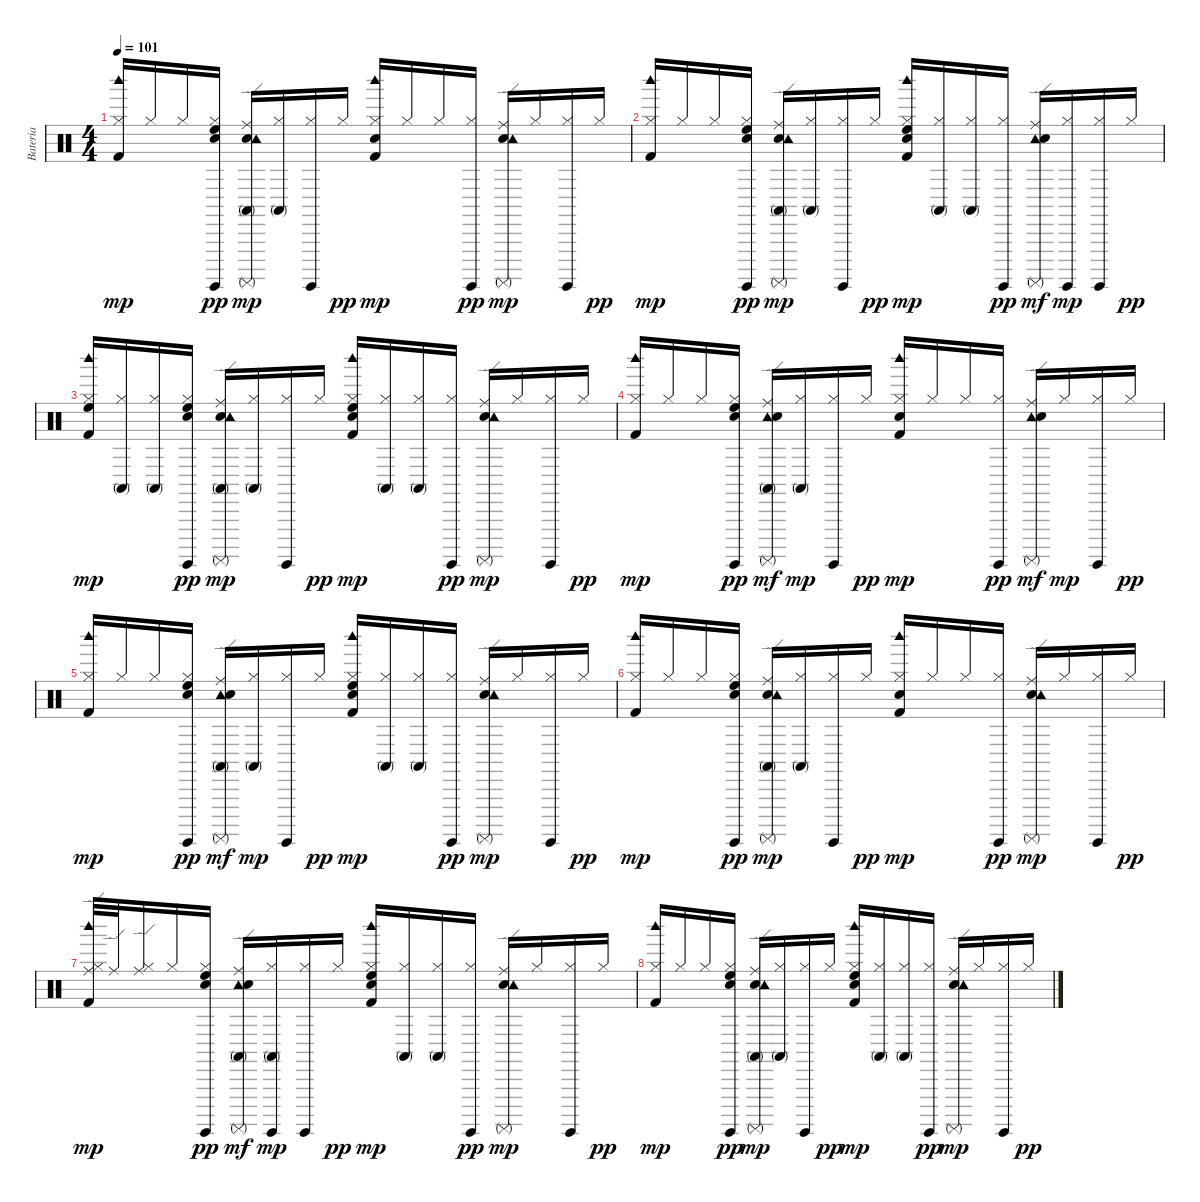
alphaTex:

\track ("Bateria" "Bateria") {instrument percussion}
\staff {score}
\articulation defaults
\ts (4 4)
\tempo 101
\clef neutral
\ks c
("Kick (hit) 2" "Hi-Hat (closed)" "Woodblock high (hit)").16{dy mp} "Hi-Hat (closed)".16 "Hi-Hat (closed)".16 ("High Floor Tom (hit)" "Snare (hit)" "Surdo (hit)" "Hi-Hat (closed)").16{dy pp} ("Conga high (mute)" "Ride (edge)" "Electric Snare (hit)" "Surdo (mute)" "Tambourine (hit)").16{dy mp} ("Conga high (mute)" "Hi-Hat (closed)").16 ("Surdo (hit)" "Hi-Hat (closed)").16 "Hi-Hat (closed)".16{dy pp} ("Snare (hit)" "Kick (hit) 2" "Hi-Hat (closed)" "Woodblock high (hit)").16{dy mp} "Hi-Hat (closed)".16 "Hi-Hat (closed)".16 ("Surdo (hit)" "Hi-Hat (closed)").16{dy pp} ("Ride (edge)" "Electric Snare (hit)" "Surdo (mute)" "Tambourine (hit)").16{dy mp} "Hi-Hat (closed)".16 ("Surdo (hit)" "Hi-Hat (closed)").16 "Hi-Hat (closed)".16{dy pp} |
("Kick (hit) 2" "Hi-Hat (closed)" "Woodblock high (hit)").16{dy mp} "Hi-Hat (closed)".16 "Hi-Hat (closed)".16 ("High Floor Tom (hit)" "Snare (hit)" "Surdo (hit)" "Hi-Hat (closed)").16{dy pp} ("Conga high (mute)" "Ride (edge)" "Electric Snare (hit)" "Surdo (mute)" "Tambourine (hit)").16{dy mp} ("Conga high (mute)" "Hi-Hat (closed)").16 ("Surdo (hit)" "Hi-Hat (closed)").16 "Hi-Hat (closed)".16{dy pp} ("High Floor Tom (hit)" "Snare (hit)" "Kick (hit) 2" "Hi-Hat (closed)" "Woodblock high (hit)").16{dy mp} ("Conga high (mute)" "Hi-Hat (closed)").16 ("Conga high (mute)" "Hi-Hat (closed)").16 ("Surdo (hit)" "Hi-Hat (closed)").16{dy pp} ("Ride (edge)" "Tambourine (hit)" "Electric Snare (hit)" "Surdo (mute)").16{dy mf} ("Surdo (hit)" "Hi-Hat (closed)").16{dy mp} ("Surdo (hit)" "Hi-Hat (closed)").16 "Hi-Hat (closed)".16{dy pp} |
("High Floor Tom (hit)" "Woodblock high (hit)" "Kick (hit) 2" "Hi-Hat (closed)").16{dy mp} ("Conga high (mute)" "Hi-Hat (closed)").16 ("Conga high (mute)" "Hi-Hat (closed)").16 ("High Floor Tom (hit)" "Snare (hit)" "Surdo (hit)" "Hi-Hat (closed)").16{dy pp} ("Conga high (mute)" "Ride (edge)" "Electric Snare (hit)" "Surdo (mute)" "Tambourine (hit)").16{dy mp} ("Conga high (mute)" "Hi-Hat (closed)").16 ("Surdo (hit)" "Hi-Hat (closed)").16 "Hi-Hat (closed)".16{dy pp} ("High Floor Tom (hit)" "Snare (hit)" "Woodblock high (hit)" "Kick (hit) 2" "Hi-Hat (closed)").16{dy mp} ("Conga high (mute)" "Hi-Hat (closed)").16 ("Conga high (mute)" "Hi-Hat (closed)").16 ("Surdo (hit)" "Hi-Hat (closed)").16{dy pp} ("Ride (edge)" "Electric Snare (hit)" "Surdo (mute)" "Tambourine (hit)").16{dy mp} "Hi-Hat (closed)".16 ("Surdo (hit)" "Hi-Hat (closed)").16 "Hi-Hat (closed)".16{dy pp} |
("Woodblock high (hit)" "Kick (hit) 2" "Hi-Hat (closed)").16{dy mp} "Hi-Hat (closed)".16 "Hi-Hat (closed)".16 ("High Floor Tom (hit)" "Snare (hit)" "Surdo (hit)" "Hi-Hat (closed)").16{dy pp} ("Conga high (mute)" "Ride (edge)" "Tambourine (hit)" "Electric Snare (hit)" "Surdo (mute)").16{dy mf} ("Conga high (mute)" "Hi-Hat (closed)").16{dy mp} ("Surdo (hit)" "Hi-Hat (closed)").16 "Hi-Hat (closed)".16{dy pp} ("Snare (hit)" "Kick (hit) 2" "Hi-Hat (closed)" "Woodblock high (hit)").16{dy mp} "Hi-Hat (closed)".16 "Hi-Hat (closed)".16 ("Surdo (hit)" "Hi-Hat (closed)").16{dy pp} ("Ride (edge)" "Surdo (mute)" "Tambourine (hit)" "Electric Snare (hit)").16{dy mf} "Hi-Hat (closed)".16{dy mp} ("Surdo (hit)" "Hi-Hat (closed)").16 "Hi-Hat (closed)".16{dy pp} |
("Hi-Hat (closed)" "Woodblock high (hit)" "Kick (hit) 2").16{dy mp} "Hi-Hat (closed)".16 "Hi-Hat (closed)".16 ("High Floor Tom (hit)" "Snare (hit)" "Surdo (hit)" "Hi-Hat (closed)").16{dy pp} ("Conga high (mute)" "Ride (edge)" "Surdo (mute)" "Tambourine (hit)" "Electric Snare (hit)").16{dy mf} ("Conga high (mute)" "Hi-Hat (closed)").16{dy mp} ("Surdo (hit)" "Hi-Hat (closed)").16 "Hi-Hat (closed)".16{dy pp} ("High Floor Tom (hit)" "Snare (hit)" "Kick (hit) 2" "Hi-Hat (closed)" "Woodblock high (hit)").16{dy mp} ("Conga high (mute)" "Hi-Hat (closed)").16 ("Conga high (mute)" "Hi-Hat (closed)").16 ("Surdo (hit)" "Hi-Hat (closed)").16{dy pp} ("Ride (edge)" "Electric Snare (hit)" "Surdo (mute)" "Tambourine (hit)").16{dy mp} "Hi-Hat (closed)".16 ("Surdo (hit)" "Hi-Hat (closed)").16 "Hi-Hat (closed)".16{dy pp} |
("Woodblock high (hit)" "Kick (hit) 2" "Hi-Hat (closed)").16{dy mp} "Hi-Hat (closed)".16 "Hi-Hat (closed)".16 ("High Floor Tom (hit)" "Snare (hit)" "Surdo (hit)" "Hi-Hat (closed)").16{dy pp} ("Conga high (mute)" "Ride (edge)" "Electric Snare (hit)" "Surdo (mute)" "Tambourine (hit)").16{dy mp} ("Conga high (mute)" "Hi-Hat (closed)").16 ("Surdo (hit)" "Hi-Hat (closed)").16 "Hi-Hat (closed)".16{dy pp} ("Snare (hit)" "Kick (hit) 2" "Hi-Hat (closed)" "Woodblock high (hit)").16{dy mp} "Hi-Hat (closed)".16 "Hi-Hat (closed)".16 ("Surdo (hit)" "Hi-Hat (closed)").16{dy pp} ("Ride (edge)" "Electric Snare (hit)" "Surdo (mute)" "Tambourine (hit)").16{dy mp} "Hi-Hat (closed)".16 ("Surdo (hit)" "Hi-Hat (closed)").16 "Hi-Hat (closed)".16{dy pp} |
("Ride (edge)" "Woodblock high (hit)" "Kick (hit) 2" "Hi-Hat (closed)").32{dy mp} "Ride (edge)".32 ("Ride (edge)" "Hi-Hat (closed)").16 "Hi-Hat (closed)".16 ("High Floor Tom (hit)" "Snare (hit)" "Surdo (hit)" "Hi-Hat (closed)").16{dy pp} ("Conga high (mute)" "Ride (edge)" "Surdo (mute)" "Tambourine (hit)" "Electric Snare (hit)").16{dy mf} ("Conga high (mute)" "Surdo (hit)" "Hi-Hat (closed)").16{dy mp} ("Surdo (hit)" "Hi-Hat (closed)").16 "Hi-Hat (closed)".16{dy pp} ("High Floor Tom (hit)" "Snare (hit)" "Kick (hit) 2" "Hi-Hat (closed)" "Woodblock high (hit)").16{dy mp} ("Conga high (mute)" "Hi-Hat (closed)").16 ("Conga high (mute)" "Hi-Hat (closed)").16 ("Surdo (hit)" "Hi-Hat (closed)").16{dy pp} ("Ride (edge)" "Electric Snare (hit)" "Surdo (mute)" "Tambourine (hit)").16{dy mp} "Hi-Hat (closed)".16 ("Surdo (hit)" "Hi-Hat (closed)").16 "Hi-Hat (closed)".16{dy pp} |
("Kick (hit) 2" "Hi-Hat (closed)" "Woodblock high (hit)").16{dy mp} "Hi-Hat (closed)".16 "Hi-Hat (closed)".16 ("High Floor Tom (hit)" "Snare (hit)" "Surdo (hit)" "Hi-Hat (closed)").16{dy pp} ("Conga high (mute)" "Ride (edge)" "Electric Snare (hit)" "Surdo (mute)" "Tambourine (hit)").16{dy mp} ("Conga high (mute)" "Hi-Hat (closed)").16 ("Surdo (hit)" "Hi-Hat (closed)").16 "Hi-Hat (closed)".16{dy pp} ("High Floor Tom (hit)" "Snare (hit)" "Kick (hit) 2" "Hi-Hat (closed)" "Woodblock high (hit)").16{dy mp} ("Conga high (mute)" "Hi-Hat (closed)").16 ("Conga high (mute)" "Hi-Hat (closed)").16 ("Surdo (hit)" "Hi-Hat (closed)").16{dy pp} ("Ride (edge)" "Electric Snare (hit)" "Surdo (mute)" "Tambourine (hit)").16{dy mp} "Hi-Hat (closed)".16 ("Surdo (hit)" "Hi-Hat (closed)").16 "Hi-Hat (closed)".16{dy pp}
